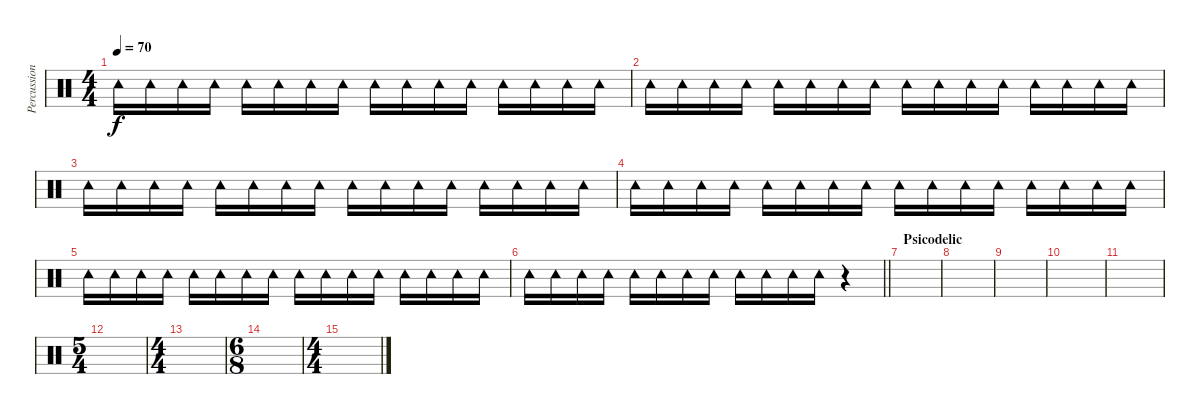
\track ("Percussion" "Percussion") {instrument percussion}
\staff {score}
\articulation defaults
\ts (4 4)
\tempo 70
\clef neutral
\ks c "Tambourine (hit)".16{dy f} "Tambourine (hit)".16 "Tambourine (hit)".16 "Tambourine (hit)".16 "Tambourine (hit)".16 "Tambourine (hit)".16 "Tambourine (hit)".16 "Tambourine (hit)".16 "Tambourine (hit)".16 "Tambourine (hit)".16 "Tambourine (hit)".16 "Tambourine (hit)".16 "Tambourine (hit)".16 "Tambourine (hit)".16 "Tambourine (hit)".16 "Tambourine (hit)".16
|
"Tambourine (hit)".16 "Tambourine (hit)".16 "Tambourine (hit)".16 "Tambourine (hit)".16 "Tambourine (hit)".16 "Tambourine (hit)".16 "Tambourine (hit)".16 "Tambourine (hit)".16 "Tambourine (hit)".16 "Tambourine (hit)".16 "Tambourine (hit)".16 "Tambourine (hit)".16 "Tambourine (hit)".16 "Tambourine (hit)".16 "Tambourine (hit)".16 "Tambourine (hit)".16 |
"Tambourine (hit)".16 "Tambourine (hit)".16 "Tambourine (hit)".16 "Tambourine (hit)".16 "Tambourine (hit)".16 "Tambourine (hit)".16 "Tambourine (hit)".16 "Tambourine (hit)".16 "Tambourine (hit)".16 "Tambourine (hit)".16 "Tambourine (hit)".16 "Tambourine (hit)".16 "Tambourine (hit)".16 "Tambourine (hit)".16 "Tambourine (hit)".16 "Tambourine (hit)".16 |
"Tambourine (hit)".16 "Tambourine (hit)".16 "Tambourine (hit)".16 "Tambourine (hit)".16 "Tambourine (hit)".16 "Tambourine (hit)".16 "Tambourine (hit)".16 "Tambourine (hit)".16 "Tambourine (hit)".16 "Tambourine (hit)".16 "Tambourine (hit)".16 "Tambourine (hit)".16 "Tambourine (hit)".16 "Tambourine (hit)".16 "Tambourine (hit)".16 "Tambourine (hit)".16 |
"Tambourine (hit)".16 "Tambourine (hit)".16 "Tambourine (hit)".16 "Tambourine (hit)".16 "Tambourine (hit)".16 "Tambourine (hit)".16 "Tambourine (hit)".16 "Tambourine (hit)".16 "Tambourine (hit)".16 "Tambourine (hit)".16 "Tambourine (hit)".16 "Tambourine (hit)".16 "Tambourine (hit)".16 "Tambourine (hit)".16 "Tambourine (hit)".16 "Tambourine (hit)".16 |
\barLineRight lightlight "Tambourine (hit)".16 "Tambourine (hit)".16 "Tambourine (hit)".16 "Tambourine (hit)".16 "Tambourine (hit)".16 "Tambourine (hit)".16 "Tambourine (hit)".16 "Tambourine (hit)".16 "Tambourine (hit)".16 "Tambourine (hit)".16 "Tambourine (hit)".16 "Tambourine (hit)".16
r.4 |
\section ("" "Psicodelic")
|
|
|
|
|
\ts (5 4)
|
\ts (4 4)
|
\ts (6 8)
|
\ts (4 4)
